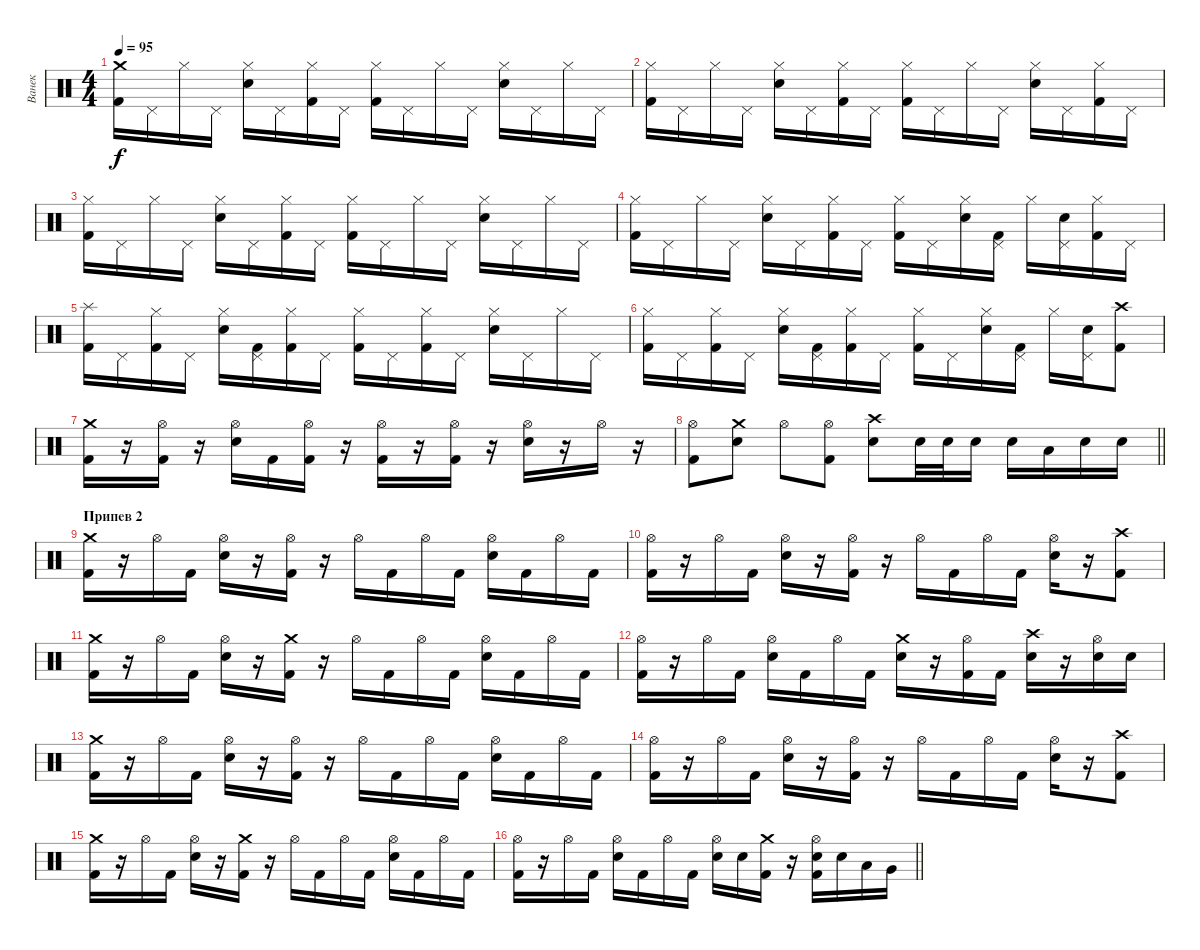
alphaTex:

\track ("Ванек" "Ванек") {instrument percussion}
\staff {score}
\articulation defaults
\ts (4 4)
\tempo 95
\clef neutral
\ks c
("Crash medium (hit)" "Kick (hit) 2").16{dy f} "Pedal Hi-Hat (hit)".16 "Hi-Hat (closed)".16 "Pedal Hi-Hat (hit)".16 ("Hi-Hat (closed)" "Snare (hit) 2").16 "Pedal Hi-Hat (hit)".16 ("Hi-Hat (closed)" "Kick (hit) 2").16 "Pedal Hi-Hat (hit)".16 ("Hi-Hat (closed)" "Kick (hit) 2").16 "Pedal Hi-Hat (hit)".16 "Hi-Hat (closed)".16 "Pedal Hi-Hat (hit)".16 ("Hi-Hat (closed)" "Snare (hit) 2").16 "Pedal Hi-Hat (hit)".16 "Hi-Hat (closed)".16 "Pedal Hi-Hat (hit)".16 |
("Hi-Hat (closed)" "Kick (hit) 2").16 "Pedal Hi-Hat (hit)".16 "Hi-Hat (closed)".16 "Pedal Hi-Hat (hit)".16 ("Hi-Hat (closed)" "Snare (hit) 2").16 "Pedal Hi-Hat (hit)".16 ("Hi-Hat (closed)" "Kick (hit) 2").16 "Pedal Hi-Hat (hit)".16 ("Hi-Hat (closed)" "Kick (hit) 2").16 "Pedal Hi-Hat (hit)".16 "Hi-Hat (closed)".16 "Pedal Hi-Hat (hit)".16 ("Hi-Hat (closed)" "Snare (hit) 2").16 "Pedal Hi-Hat (hit)".16 ("Hi-Hat (closed)" "Kick (hit) 2").16 "Pedal Hi-Hat (hit)".16 |
("Hi-Hat (closed)" "Kick (hit) 2").16 "Pedal Hi-Hat (hit)".16 "Hi-Hat (closed)".16 "Pedal Hi-Hat (hit)".16 ("Hi-Hat (closed)" "Snare (hit) 2").16 "Pedal Hi-Hat (hit)".16 ("Hi-Hat (closed)" "Kick (hit) 2").16 "Pedal Hi-Hat (hit)".16 ("Hi-Hat (closed)" "Kick (hit) 2").16 "Pedal Hi-Hat (hit)".16 "Hi-Hat (closed)".16 "Pedal Hi-Hat (hit)".16 ("Hi-Hat (closed)" "Snare (hit) 2").16 "Pedal Hi-Hat (hit)".16 "Hi-Hat (closed)".16 "Pedal Hi-Hat (hit)".16 |
("Hi-Hat (closed)" "Kick (hit) 2").16 "Pedal Hi-Hat (hit)".16 "Hi-Hat (closed)".16 "Pedal Hi-Hat (hit)".16 ("Hi-Hat (closed)" "Snare (hit) 2").16 "Pedal Hi-Hat (hit)".16 ("Hi-Hat (closed)" "Kick (hit) 2").16 "Pedal Hi-Hat (hit)".16 ("Hi-Hat (closed)" "Kick (hit) 2").16 "Pedal Hi-Hat (hit)".16 ("Hi-Hat (closed)" "Snare (hit) 2").16 ("Pedal Hi-Hat (hit)" "Kick (hit) 2").16 "Hi-Hat (closed)".16 ("Pedal Hi-Hat (hit)" "Snare (hit) 2").16 ("Hi-Hat (closed)" "Kick (hit) 2").16 "Pedal Hi-Hat (hit)".16 |
("Splash (hit)" "Kick (hit) 2").16 "Pedal Hi-Hat (hit)".16 ("Hi-Hat (closed)" "Kick (hit) 2").16 "Pedal Hi-Hat (hit)".16 ("Hi-Hat (closed)" "Snare (hit) 2").16 ("Pedal Hi-Hat (hit)" "Kick (hit) 2").16 ("Hi-Hat (closed)" "Kick (hit) 2").16 "Pedal Hi-Hat (hit)".16 ("Hi-Hat (closed)" "Kick (hit) 2").16 "Pedal Hi-Hat (hit)".16 ("Hi-Hat (closed)" "Kick (hit) 2").16 "Pedal Hi-Hat (hit)".16 ("Hi-Hat (closed)" "Snare (hit) 2").16 "Pedal Hi-Hat (hit)".16 "Hi-Hat (closed)".16 "Pedal Hi-Hat (hit)".16 |
("Hi-Hat (closed)" "Kick (hit) 2").16 "Pedal Hi-Hat (hit)".16 ("Hi-Hat (closed)" "Kick (hit) 2").16 "Pedal Hi-Hat (hit)".16 ("Hi-Hat (closed)" "Snare (hit) 2").16 ("Pedal Hi-Hat (hit)" "Kick (hit) 2").16 ("Hi-Hat (closed)" "Kick (hit) 2").16 "Pedal Hi-Hat (hit)".16 ("Hi-Hat (closed)" "Kick (hit) 2").16 "Pedal Hi-Hat (hit)".16 ("Hi-Hat (closed)" "Snare (hit) 2").16 ("Pedal Hi-Hat (hit)" "Kick (hit) 2").16 "Hi-Hat (closed)".16 ("Pedal Hi-Hat (hit)" "Snare (hit) 2").16 ("Crash high (hit)" "Kick (hit) 2").8 |
("Crash medium (hit)" "Kick (hit) 2").16 r.16 ("Hi-Hat (open)" "Kick (hit) 2").16 r.16 ("Hi-Hat (open)" "Snare (hit) 2").16 "Kick (hit) 2".16 ("Hi-Hat (open)" "Kick (hit) 2").16 r.16 ("Hi-Hat (open)" "Kick (hit) 2").16 r.16 ("Hi-Hat (open)" "Kick (hit) 2").16 r.16 ("Hi-Hat (open)" "Snare (hit) 2").16 r.16 "Hi-Hat (open)".16 r.16 |
\barLineRight lightlight
("Hi-Hat (open)" "Kick (hit) 2").8 ("Crash medium (hit)" "Snare (hit) 2").8 "Hi-Hat (open)".8 ("Hi-Hat (open)" "Kick (hit) 2").8 ("Crash high (hit)" "Snare (hit) 2").8 "Snare (hit) 2".32 "Snare (hit) 2".32 "Snare (hit) 2".16 "Snare (hit) 2".16 "Low Floor Tom (hit)".16 "Snare (hit) 2".16 "Snare (hit) 2".16 |
\section ("" "Припев 2")
("Crash medium (hit)" "Kick (hit) 2").16 r.16 "Hi-Hat (open)".16 "Kick (hit) 2".16 ("Hi-Hat (open)" "Snare (hit) 2").16 r.16 ("Hi-Hat (open)" "Kick (hit) 2").16 r.16 "Hi-Hat (open)".16 "Kick (hit) 2".16 "Hi-Hat (open)".16 "Kick (hit) 2".16 ("Hi-Hat (open)" "Snare (hit) 2").16 "Kick (hit) 2".16 "Hi-Hat (open)".16 "Kick (hit) 2".16 |
("Hi-Hat (open)" "Kick (hit) 2").16 r.16 "Hi-Hat (open)".16 "Kick (hit) 2".16 ("Hi-Hat (open)" "Snare (hit) 2").16 r.16 ("Hi-Hat (open)" "Kick (hit) 2").16 r.16 "Hi-Hat (open)".16 "Kick (hit) 2".16 "Hi-Hat (open)".16 "Kick (hit) 2".16 ("Hi-Hat (open)" "Snare (hit) 2").16 r.16 ("Crash high (hit)" "Kick (hit) 2").8 |
("Crash medium (hit)" "Kick (hit) 2").16 r.16 "Hi-Hat (open)".16 "Kick (hit) 2".16 ("Hi-Hat (open)" "Snare (hit) 2").16 r.16 ("Crash medium (hit)" "Kick (hit) 2").16 r.16 "Hi-Hat (open)".16 "Kick (hit) 2".16 "Hi-Hat (open)".16 "Kick (hit) 2".16 ("Hi-Hat (open)" "Snare (hit) 2").16 "Kick (hit) 2".16 "Hi-Hat (open)".16 "Kick (hit) 2".16 |
("Hi-Hat (open)" "Kick (hit) 2").16 r.16 "Hi-Hat (open)".16 "Kick (hit) 2".16 ("Hi-Hat (open)" "Snare (hit) 2").16 "Kick (hit) 2".16 "Hi-Hat (open)".16 "Kick (hit) 2".16 ("Crash medium (hit)" "Snare (hit) 2").16 r.16 ("Hi-Hat (open)" "Kick (hit) 2").16 "Kick (hit) 2".16 ("Crash high (hit)" "Snare (hit) 2").16 r.16 ("Hi-Hat (open)" "Snare (hit) 2").16 "Snare (hit) 2".16 |
("Crash medium (hit)" "Kick (hit) 2").16 r.16 "Hi-Hat (open)".16 "Kick (hit) 2".16 ("Hi-Hat (open)" "Snare (hit) 2").16 r.16 ("Hi-Hat (open)" "Kick (hit) 2").16 r.16 "Hi-Hat (open)".16 "Kick (hit) 2".16 "Hi-Hat (open)".16 "Kick (hit) 2".16 ("Hi-Hat (open)" "Snare (hit) 2").16 "Kick (hit) 2".16 "Hi-Hat (open)".16 "Kick (hit) 2".16 |
("Hi-Hat (open)" "Kick (hit) 2").16 r.16 "Hi-Hat (open)".16 "Kick (hit) 2".16 ("Hi-Hat (open)" "Snare (hit) 2").16 r.16 ("Hi-Hat (open)" "Kick (hit) 2").16 r.16 "Hi-Hat (open)".16 "Kick (hit) 2".16 "Hi-Hat (open)".16 "Kick (hit) 2".16 ("Hi-Hat (open)" "Snare (hit) 2").16 r.16 ("Crash high (hit)" "Kick (hit) 2").8 |
("Crash medium (hit)" "Kick (hit) 2").16 r.16 "Hi-Hat (open)".16 "Kick (hit) 2".16 ("Hi-Hat (open)" "Snare (hit) 2").16 r.16 ("Crash medium (hit)" "Kick (hit) 2").16 r.16 "Hi-Hat (open)".16 "Kick (hit) 2".16 "Hi-Hat (open)".16 "Kick (hit) 2".16 ("Hi-Hat (open)" "Snare (hit) 2").16 "Kick (hit) 2".16 "Hi-Hat (open)".16 "Kick (hit) 2".16 |
\barLineRight lightlight
("Hi-Hat (open)" "Kick (hit) 2").16 r.16 "Hi-Hat (open)".16 "Kick (hit) 2".16 ("Hi-Hat (open)" "Snare (hit) 2").16 "Kick (hit) 2".16 "Hi-Hat (open)".16 "Kick (hit) 2".16 ("Hi-Hat (open)" "Snare (hit) 2").16 "Snare (hit) 2".16 ("Crash medium (hit)" "Kick (hit) 2").16 r.16 ("Hi-Hat (open)" "Snare (hit) 2" "Kick (hit) 2").16 "Snare (hit) 2".16 "Low Floor Tom (hit)".16 "Very Low Tom (hit)".16
